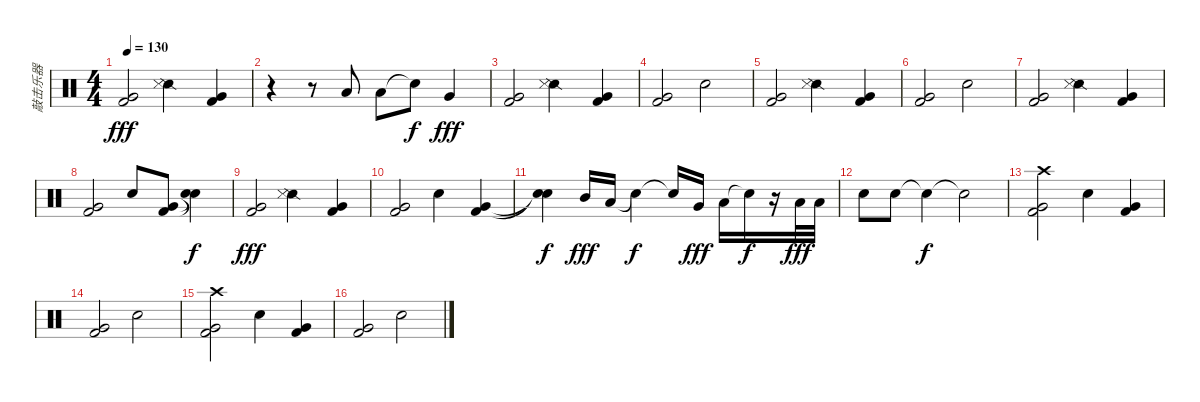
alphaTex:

\track ("敲击乐器" "敲击乐器") {instrument percussion}
\staff {score}
\articulation defaults
\ts (4 4)
\tempo 130
\clef neutral
\ks c
("Very Low Tom (hit)" "Kick (hit) 2").2{dy fff} ("Snare (side stick) 2" "Metronome (hit)").4 ("Very Low Tom (hit)" "Kick (hit) 2").4 |
r.4 r.8 "Low Tom (hit)".8 "Low Tom (hit)".8 "Snare (hit)"{t}.8{dy f} "Very Low Tom (hit)".4{dy fff} |
("Very Low Tom (hit)" "Kick (hit) 2").2 ("Snare (side stick) 2" "Metronome (hit)").4 ("Very Low Tom (hit)" "Kick (hit) 2").4 |
("Very Low Tom (hit)" "Kick (hit) 2").2 "Electric Snare (hit)".2 |
("Very Low Tom (hit)" "Kick (hit) 2").2 ("Snare (side stick) 2" "Metronome (hit)").4 ("Very Low Tom (hit)" "Kick (hit) 2").4 |
("Very Low Tom (hit)" "Kick (hit) 2").2 "Electric Snare (hit)".2 |
("Very Low Tom (hit)" "Kick (hit) 2").2 ("Snare (side stick) 2" "Metronome (hit)").4 ("Very Low Tom (hit)" "Kick (hit) 2").4 |
("Very Low Tom (hit)" "Kick (hit) 2").2 "Electric Snare (hit)".8 ("Very Low Tom (hit)" "Kick (hit) 2").8 ("Snare (hit)"{t} "Snare (hit)"{t}).4{dy f} |
("Very Low Tom (hit)" "Kick (hit) 2").2{dy fff} ("Snare (side stick) 2" "Metronome (hit)").4 ("Very Low Tom (hit)" "Kick (hit) 2").4 |
("Very Low Tom (hit)" "Kick (hit) 2").2 "Electric Snare (hit)".4 ("Very Low Tom (hit)" "Kick (hit) 2").4 |
("Snare (hit)"{t} "Snare (hit)"{t}).4{dy f} "Mid Tom (hit)".16{dy fff} "Low Tom (hit)".16 "Snare (hit)"{t}.4{dy f} "Snare (hit)"{t}.16 "Very Low Tom (hit)".16{dy fff} "Low Floor Tom (hit)".16 "Snare (hit)"{t}.16{dy f} r.16 "Low Floor Tom (hit)".32{dy fff} "Low Floor Tom (hit)".32 |
"Electric Snare (hit)".8 "Electric Snare (hit)".8 "Snare (hit)"{t}.4{dy f} "Snare (hit)"{t}.2 |
("Very Low Tom (hit)" "Kick (hit) 2" "Crash high (hit)").2 "Electric Snare (hit)".4 ("Very Low Tom (hit)" "Kick (hit) 2").4 |
("Very Low Tom (hit)" "Kick (hit) 2").2 "Electric Snare (hit)".2 |
("Very Low Tom (hit)" "Kick (hit) 2" "Crash high (hit)").2 "Electric Snare (hit)".4 ("Very Low Tom (hit)" "Kick (hit) 2").4 |
("Very Low Tom (hit)" "Kick (hit) 2").2 "Electric Snare (hit)".2
